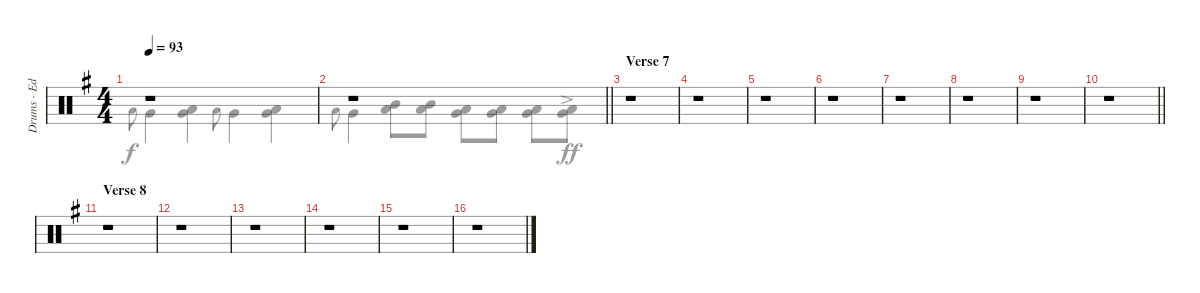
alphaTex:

\track ("Drums - Ed Warby" "Drums - Ed") {instrument percussion}
\staff {score}
\articulation defaults
\voice
\ts (4 4)
\tempo 93
\clef neutral
\ks eminor
r.1{dy mf} |
\barLineRight lightlight
r.1 |
\section ("" "Verse 7")
r.1 |
r.1 |
r.1 |
r.1 |
r.1 |
r.1 |
r.1 |
\barLineRight lightlight
r.1 |
\section ("" "Verse 8")
r.1 |
r.1 |
r.1 |
r.1 |
r.1 |
r.1
\voice
\clef neutral
\ottava regular
\simile none
\ks eminor "Low Tom (hit)".8{gr onbeat dy f} "Very Low Tom (hit)".4
("Very Low Tom (hit)" "Low Floor Tom (hit)").4 "Low Tom (hit)".8{gr onbeat} "Very Low Tom (hit)".4 ("Very Low Tom (hit)" "Low Floor Tom (hit)").4 |
\barLineRight lightlight "Low Tom (hit)".8{gr onbeat} "Very Low Tom (hit)".4
("Mid Tom (hit)" "Low Tom (hit)").8 ("Mid Tom (hit)" "Low Tom (hit)").8 ("Low Tom (hit)" "Very Low Tom (hit)").8 ("Low Tom (hit)" "Very Low Tom (hit)").8 ("Very Low Tom (hit)" "Low Floor Tom (hit)").8 ("Very Low Tom (hit)"{ac} "Low Floor Tom (hit)"{ac}).8{dy ff} |
|
|
|
|
|
|
|
\barLineRight lightlight
|
|
|
|
|
|
